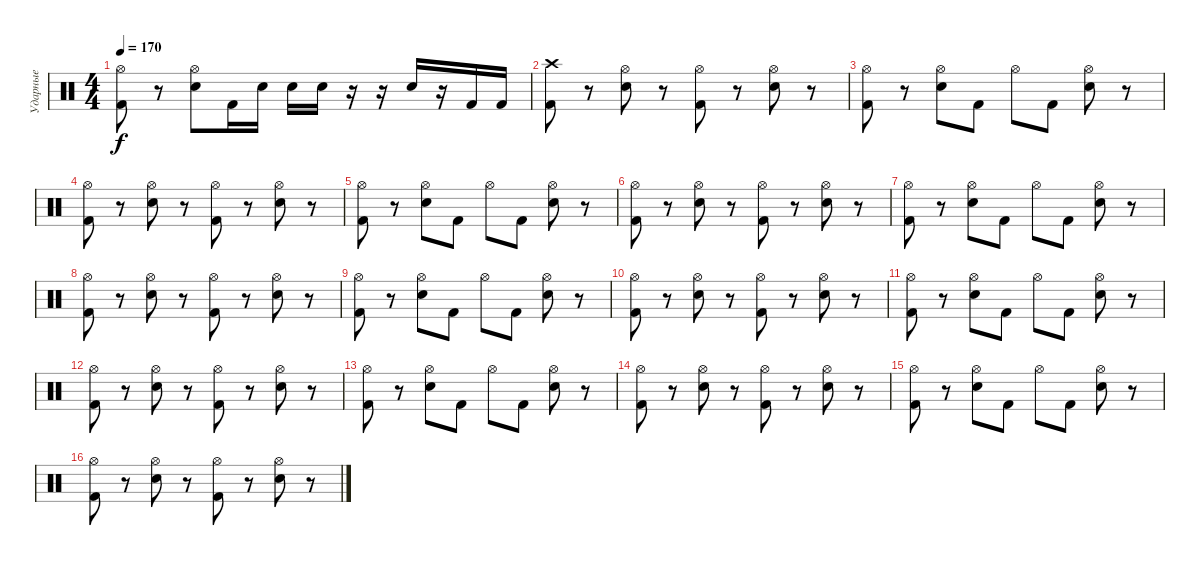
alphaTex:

\track ("Ударные" "Ударные") {instrument percussion}
\staff {score}
\articulation defaults
\ts (4 4)
\tempo 170
\clef neutral
\ks c
("Hi-Hat (open)" "Kick (hit) 2").8{dy f} r.8 ("Hi-Hat (open)" "Electric Snare (hit)").8 "Kick (hit) 2".16 "Electric Snare (hit)".16 "Electric Snare (hit)".16 "Electric Snare (hit)".16 r.16 r.16 "Electric Snare (hit)".16 r.16 "Kick (hit) 2".16 "Kick (hit) 2".16 |
("Crash high (hit)" "Kick (hit) 2").8 r.8 ("Hi-Hat (open)" "Electric Snare (hit)").8 r.8 ("Hi-Hat (open)" "Kick (hit) 2").8 r.8 ("Hi-Hat (open)" "Electric Snare (hit)").8 r.8 |
("Hi-Hat (open)" "Kick (hit) 2").8 r.8 ("Hi-Hat (open)" "Electric Snare (hit)").8 "Kick (hit) 2".8 "Hi-Hat (open)".8 "Kick (hit) 2".8 ("Hi-Hat (open)" "Electric Snare (hit)").8 r.8 |
("Hi-Hat (open)" "Kick (hit) 2").8 r.8 ("Hi-Hat (open)" "Electric Snare (hit)").8 r.8 ("Hi-Hat (open)" "Kick (hit) 2").8 r.8 ("Hi-Hat (open)" "Electric Snare (hit)").8 r.8 |
("Hi-Hat (open)" "Kick (hit) 2").8 r.8 ("Hi-Hat (open)" "Electric Snare (hit)").8 "Kick (hit) 2".8 "Hi-Hat (open)".8 "Kick (hit) 2".8 ("Hi-Hat (open)" "Electric Snare (hit)").8 r.8 |
("Hi-Hat (open)" "Kick (hit) 2").8 r.8 ("Hi-Hat (open)" "Electric Snare (hit)").8 r.8 ("Hi-Hat (open)" "Kick (hit) 2").8 r.8 ("Hi-Hat (open)" "Electric Snare (hit)").8 r.8 |
("Hi-Hat (open)" "Kick (hit) 2").8 r.8 ("Hi-Hat (open)" "Electric Snare (hit)").8 "Kick (hit) 2".8 "Hi-Hat (open)".8 "Kick (hit) 2".8 ("Hi-Hat (open)" "Electric Snare (hit)").8 r.8 |
("Hi-Hat (open)" "Kick (hit) 2").8 r.8 ("Hi-Hat (open)" "Electric Snare (hit)").8 r.8 ("Hi-Hat (open)" "Kick (hit) 2").8 r.8 ("Hi-Hat (open)" "Electric Snare (hit)").8 r.8 |
("Hi-Hat (open)" "Kick (hit) 2").8 r.8 ("Hi-Hat (open)" "Electric Snare (hit)").8 "Kick (hit) 2".8 "Hi-Hat (open)".8 "Kick (hit) 2".8 ("Hi-Hat (open)" "Electric Snare (hit)").8 r.8 |
("Hi-Hat (open)" "Kick (hit) 2").8 r.8 ("Hi-Hat (open)" "Electric Snare (hit)").8 r.8 ("Hi-Hat (open)" "Kick (hit) 2").8 r.8 ("Hi-Hat (open)" "Electric Snare (hit)").8 r.8 |
("Hi-Hat (open)" "Kick (hit) 2").8 r.8 ("Hi-Hat (open)" "Electric Snare (hit)").8 "Kick (hit) 2".8 "Hi-Hat (open)".8 "Kick (hit) 2".8 ("Hi-Hat (open)" "Electric Snare (hit)").8 r.8 |
("Hi-Hat (open)" "Kick (hit) 2").8 r.8 ("Hi-Hat (open)" "Electric Snare (hit)").8 r.8 ("Hi-Hat (open)" "Kick (hit) 2").8 r.8 ("Hi-Hat (open)" "Electric Snare (hit)").8 r.8 |
("Hi-Hat (open)" "Kick (hit) 2").8 r.8 ("Hi-Hat (open)" "Electric Snare (hit)").8 "Kick (hit) 2".8 "Hi-Hat (open)".8 "Kick (hit) 2".8 ("Hi-Hat (open)" "Electric Snare (hit)").8 r.8 |
("Hi-Hat (open)" "Kick (hit) 2").8 r.8 ("Hi-Hat (open)" "Electric Snare (hit)").8 r.8 ("Hi-Hat (open)" "Kick (hit) 2").8 r.8 ("Hi-Hat (open)" "Electric Snare (hit)").8 r.8 |
("Hi-Hat (open)" "Kick (hit) 2").8 r.8 ("Hi-Hat (open)" "Electric Snare (hit)").8 "Kick (hit) 2".8 "Hi-Hat (open)".8 "Kick (hit) 2".8 ("Hi-Hat (open)" "Electric Snare (hit)").8 r.8 |
("Hi-Hat (open)" "Kick (hit) 2").8 r.8 ("Hi-Hat (open)" "Electric Snare (hit)").8 r.8 ("Hi-Hat (open)" "Kick (hit) 2").8 r.8 ("Hi-Hat (open)" "Electric Snare (hit)").8 r.8
